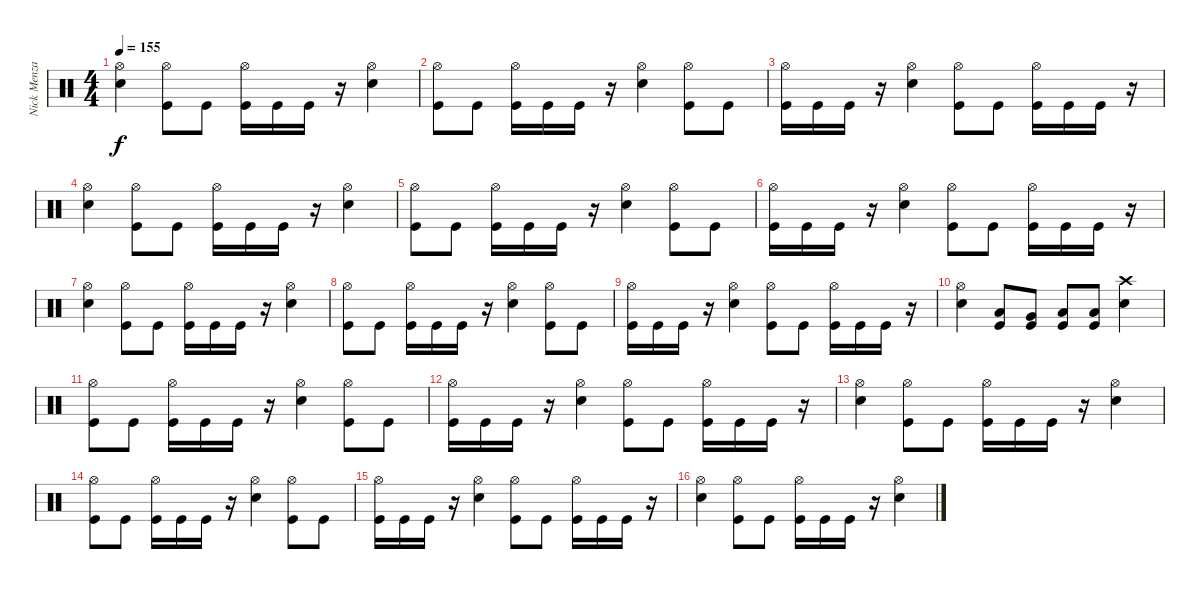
\track ("Nick Menza" "Nick Menza") {instrument percussion}
\staff {score}
\articulation defaults
\ts (4 4)
\tempo 155
\clef neutral
\ks c
("Hi-Hat (open)" "Snare (hit) 2").4{dy f} ("Hi-Hat (open)" "Kick (hit)").8 "Kick (hit)".8 ("Hi-Hat (open)" "Kick (hit)").16 "Kick (hit)".16 "Kick (hit)".16 r.16 ("Hi-Hat (open)" "Snare (hit) 2").4 |
("Hi-Hat (open)" "Kick (hit)").8 "Kick (hit)".8 ("Hi-Hat (open)" "Kick (hit)").16 "Kick (hit)".16 "Kick (hit)".16 r.16 ("Hi-Hat (open)" "Snare (hit) 2").4 ("Hi-Hat (open)" "Kick (hit)").8 "Kick (hit)".8 |
("Hi-Hat (open)" "Kick (hit)").16 "Kick (hit)".16 "Kick (hit)".16 r.16 ("Hi-Hat (open)" "Snare (hit) 2").4 ("Hi-Hat (open)" "Kick (hit)").8 "Kick (hit)".8 ("Hi-Hat (open)" "Kick (hit)").16 "Kick (hit)".16 "Kick (hit)".16 r.16 |
("Hi-Hat (open)" "Snare (hit) 2").4 ("Hi-Hat (open)" "Kick (hit)").8 "Kick (hit)".8 ("Hi-Hat (open)" "Kick (hit)").16 "Kick (hit)".16 "Kick (hit)".16 r.16 ("Hi-Hat (open)" "Snare (hit) 2").4 |
("Hi-Hat (open)" "Kick (hit)").8 "Kick (hit)".8 ("Hi-Hat (open)" "Kick (hit)").16 "Kick (hit)".16 "Kick (hit)".16 r.16 ("Hi-Hat (open)" "Snare (hit) 2").4 ("Hi-Hat (open)" "Kick (hit)").8 "Kick (hit)".8 |
("Hi-Hat (open)" "Kick (hit)").16 "Kick (hit)".16 "Kick (hit)".16 r.16 ("Hi-Hat (open)" "Snare (hit) 2").4 ("Hi-Hat (open)" "Kick (hit)").8 "Kick (hit)".8 ("Hi-Hat (open)" "Kick (hit)").16 "Kick (hit)".16 "Kick (hit)".16 r.16 |
("Hi-Hat (open)" "Snare (hit) 2").4 ("Hi-Hat (open)" "Kick (hit)").8 "Kick (hit)".8 ("Hi-Hat (open)" "Kick (hit)").16 "Kick (hit)".16 "Kick (hit)".16 r.16 ("Hi-Hat (open)" "Snare (hit) 2").4 |
("Hi-Hat (open)" "Kick (hit)").8 "Kick (hit)".8 ("Hi-Hat (open)" "Kick (hit)").16 "Kick (hit)".16 "Kick (hit)".16 r.16 ("Hi-Hat (open)" "Snare (hit) 2").4 ("Hi-Hat (open)" "Kick (hit)").8 "Kick (hit)".8 |
("Hi-Hat (open)" "Kick (hit)").16 "Kick (hit)".16 "Kick (hit)".16 r.16 ("Hi-Hat (open)" "Snare (hit) 2").4 ("Hi-Hat (open)" "Kick (hit)").8 "Kick (hit)".8 ("Hi-Hat (open)" "Kick (hit)").16 "Kick (hit)".16 "Kick (hit)".16 r.16 |
("Hi-Hat (open)" "Snare (hit) 2").4 ("Low Tom (hit)" "Kick (hit)").8 ("Very Low Tom (hit)" "Kick (hit)").8 ("Low Floor Tom (hit)" "Kick (hit)").8 ("Low Floor Tom (hit)" "Kick (hit)").8 ("Crash high (hit)" "Snare (hit) 2").4 |
("Hi-Hat (open)" "Kick (hit)").8 "Kick (hit)".8 ("Hi-Hat (open)" "Kick (hit)").16 "Kick (hit)".16 "Kick (hit)".16 r.16 ("Hi-Hat (open)" "Snare (hit) 2").4 ("Hi-Hat (open)" "Kick (hit)").8 "Kick (hit)".8 |
("Hi-Hat (open)" "Kick (hit)").16 "Kick (hit)".16 "Kick (hit)".16 r.16 ("Hi-Hat (open)" "Snare (hit) 2").4 ("Hi-Hat (open)" "Kick (hit)").8 "Kick (hit)".8 ("Hi-Hat (open)" "Kick (hit)").16 "Kick (hit)".16 "Kick (hit)".16 r.16 |
("Hi-Hat (open)" "Snare (hit) 2").4 ("Hi-Hat (open)" "Kick (hit)").8 "Kick (hit)".8 ("Hi-Hat (open)" "Kick (hit)").16 "Kick (hit)".16 "Kick (hit)".16 r.16 ("Hi-Hat (open)" "Snare (hit) 2").4 |
("Hi-Hat (open)" "Kick (hit)").8 "Kick (hit)".8 ("Hi-Hat (open)" "Kick (hit)").16 "Kick (hit)".16 "Kick (hit)".16 r.16 ("Hi-Hat (open)" "Snare (hit) 2").4 ("Hi-Hat (open)" "Kick (hit)").8 "Kick (hit)".8 |
("Hi-Hat (open)" "Kick (hit)").16 "Kick (hit)".16 "Kick (hit)".16 r.16 ("Hi-Hat (open)" "Snare (hit) 2").4 ("Hi-Hat (open)" "Kick (hit)").8 "Kick (hit)".8 ("Hi-Hat (open)" "Kick (hit)").16 "Kick (hit)".16 "Kick (hit)".16 r.16 |
("Hi-Hat (open)" "Snare (hit) 2").4 ("Hi-Hat (open)" "Kick (hit)").8 "Kick (hit)".8 ("Hi-Hat (open)" "Kick (hit)").16 "Kick (hit)".16 "Kick (hit)".16 r.16 ("Hi-Hat (open)" "Snare (hit) 2").4
